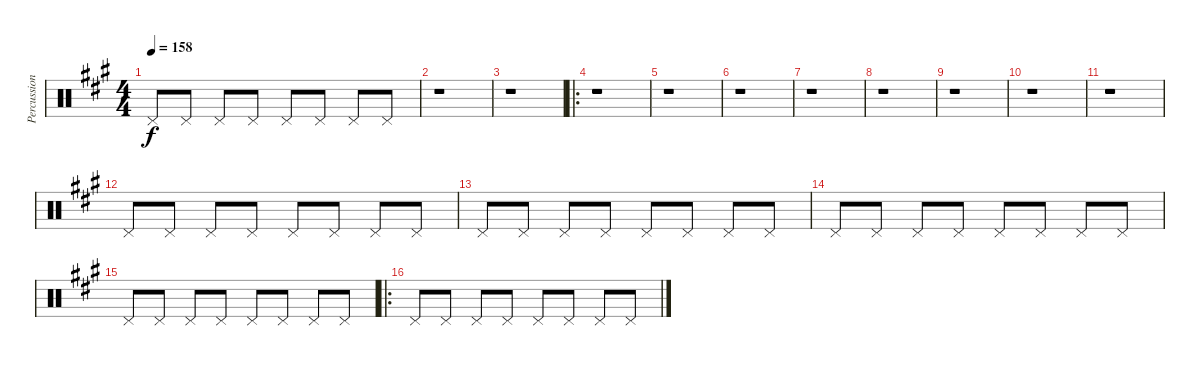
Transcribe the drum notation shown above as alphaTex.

\track ("Percussion" "Percussion") {instrument percussion}
\staff {score}
\articulation defaults
\ts (4 4)
\tempo 158
\clef neutral
\ks a "Pedal Hi-Hat (hit)".8{dy f} "Pedal Hi-Hat (hit)".8 "Pedal Hi-Hat (hit)".8 "Pedal Hi-Hat (hit)".8 "Pedal Hi-Hat (hit)".8 "Pedal Hi-Hat (hit)".8 "Pedal Hi-Hat (hit)".8 "Pedal Hi-Hat (hit)".8
|
r.1 |
r.1 |
\ro
r.1 |
r.1 |
r.1 |
r.1 |
r.1 |
r.1 |
r.1 |
r.1 |
"Pedal Hi-Hat (hit)".8 "Pedal Hi-Hat (hit)".8 "Pedal Hi-Hat (hit)".8 "Pedal Hi-Hat (hit)".8 "Pedal Hi-Hat (hit)".8 "Pedal Hi-Hat (hit)".8 "Pedal Hi-Hat (hit)".8 "Pedal Hi-Hat (hit)".8 |
"Pedal Hi-Hat (hit)".8 "Pedal Hi-Hat (hit)".8 "Pedal Hi-Hat (hit)".8 "Pedal Hi-Hat (hit)".8 "Pedal Hi-Hat (hit)".8 "Pedal Hi-Hat (hit)".8 "Pedal Hi-Hat (hit)".8 "Pedal Hi-Hat (hit)".8 |
"Pedal Hi-Hat (hit)".8 "Pedal Hi-Hat (hit)".8 "Pedal Hi-Hat (hit)".8 "Pedal Hi-Hat (hit)".8 "Pedal Hi-Hat (hit)".8 "Pedal Hi-Hat (hit)".8 "Pedal Hi-Hat (hit)".8 "Pedal Hi-Hat (hit)".8 |
"Pedal Hi-Hat (hit)".8 "Pedal Hi-Hat (hit)".8 "Pedal Hi-Hat (hit)".8 "Pedal Hi-Hat (hit)".8 "Pedal Hi-Hat (hit)".8 "Pedal Hi-Hat (hit)".8 "Pedal Hi-Hat (hit)".8 "Pedal Hi-Hat (hit)".8 |
\ro "Pedal Hi-Hat (hit)".8 "Pedal Hi-Hat (hit)".8 "Pedal Hi-Hat (hit)".8 "Pedal Hi-Hat (hit)".8 "Pedal Hi-Hat (hit)".8 "Pedal Hi-Hat (hit)".8 "Pedal Hi-Hat (hit)".8 "Pedal Hi-Hat (hit)".8
